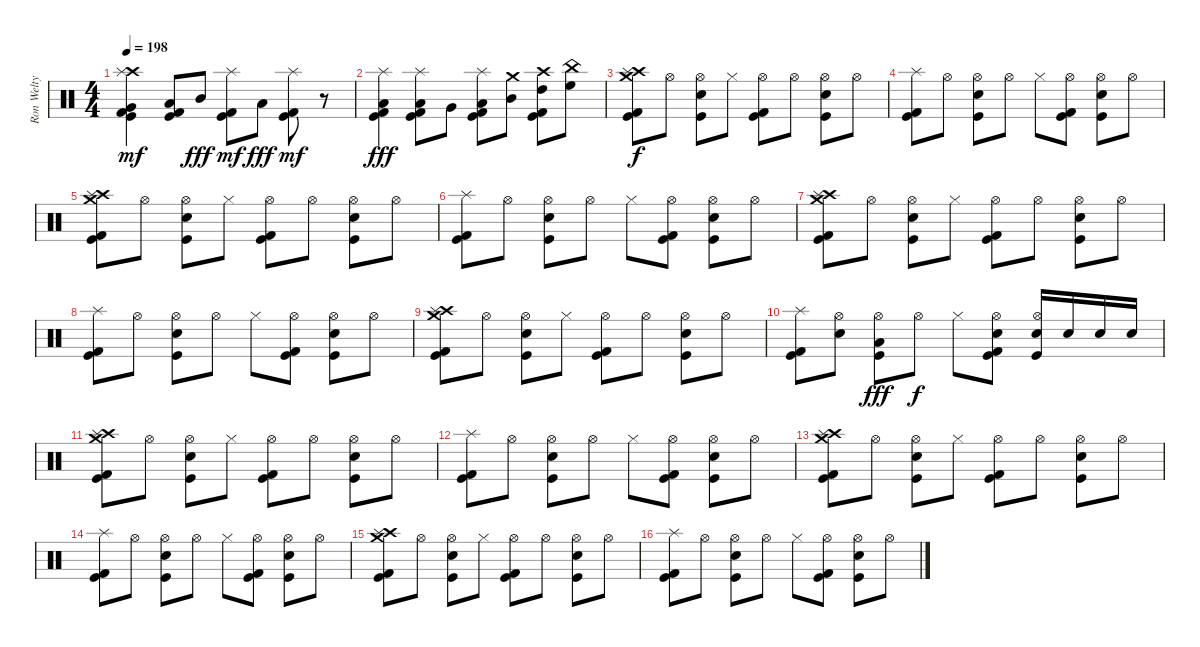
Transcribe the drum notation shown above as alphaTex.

\track ("Ron Welty" "Ron Welty") {instrument percussion}
\staff {score}
\articulation defaults
\ts (4 4)
\tempo 198
\clef neutral
\ks c
("Crash high (hit)" "Splash (hit)" "Very Low Tom (hit)" "Kick (hit) 2" "Kick (hit)").4{dy mf} ("Low Tom (hit)" "Kick (hit) 2" "Kick (hit)").8 "Mid Tom (hit)".8{dy fff} ("Splash (hit)" "Kick (hit) 2" "Kick (hit)").8{dy mf} "Low Floor Tom (hit)".8{dy fff} ("Splash (hit)" "Kick (hit) 2" "Kick (hit)").8{dy mf} r.8 |
("Splash (hit)" "Low Tom (hit)" "Kick (hit) 2" "Kick (hit)").4{dy fff} ("Splash (hit)" "Low Floor Tom (hit)" "Kick (hit) 2" "Kick (hit)").8 "Very Low Tom (hit)".8 ("Splash (hit)" "Low Tom (hit)" "Kick (hit) 2" "Kick (hit)").8 ("Crash medium (hit)" "Mid Tom (hit)").8 ("Crash high (hit)" "High Tom (hit)" "Kick (hit) 2" "Kick (hit)").8 ("China (hit)" "High Floor Tom (hit)").8 |
("Crash medium (hit)" "Crash high (hit)" "Splash (hit)" "Kick (hit) 2" "Kick (hit)").8{dy f} "Hi-Hat (open)".8 ("Hi-Hat (open)" "Electric Snare (hit)" "Kick (hit)").8 "Hi-Hat (closed)".8 ("Hi-Hat (open)" "Kick (hit) 2" "Kick (hit)").8 "Hi-Hat (open)".8 ("Hi-Hat (open)" "Electric Snare (hit)" "Kick (hit)").8 "Hi-Hat (open)".8 |
("Splash (hit)" "Kick (hit) 2" "Kick (hit)").8 "Hi-Hat (open)".8 ("Hi-Hat (open)" "Electric Snare (hit)" "Kick (hit)").8 "Hi-Hat (open)".8 "Hi-Hat (closed)".8 ("Hi-Hat (open)" "Kick (hit) 2" "Kick (hit)").8 ("Hi-Hat (open)" "Electric Snare (hit)" "Kick (hit)").8 "Hi-Hat (open)".8 |
("Crash medium (hit)" "Crash high (hit)" "Splash (hit)" "Kick (hit) 2" "Kick (hit)").8 "Hi-Hat (open)".8 ("Hi-Hat (open)" "Electric Snare (hit)" "Kick (hit)").8 "Hi-Hat (closed)".8 ("Hi-Hat (open)" "Kick (hit) 2" "Kick (hit)").8 "Hi-Hat (open)".8 ("Hi-Hat (open)" "Electric Snare (hit)" "Kick (hit)").8 "Hi-Hat (open)".8 |
("Splash (hit)" "Kick (hit) 2" "Kick (hit)").8 "Hi-Hat (open)".8 ("Hi-Hat (open)" "Electric Snare (hit)" "Kick (hit)").8 "Hi-Hat (open)".8 "Hi-Hat (closed)".8 ("Hi-Hat (open)" "Kick (hit) 2" "Kick (hit)").8 ("Hi-Hat (open)" "Electric Snare (hit)" "Kick (hit)").8 "Hi-Hat (open)".8 |
("Crash medium (hit)" "Crash high (hit)" "Splash (hit)" "Kick (hit) 2" "Kick (hit)").8 "Hi-Hat (open)".8 ("Hi-Hat (open)" "Electric Snare (hit)" "Kick (hit)").8 "Hi-Hat (closed)".8 ("Hi-Hat (open)" "Kick (hit) 2" "Kick (hit)").8 "Hi-Hat (open)".8 ("Hi-Hat (open)" "Electric Snare (hit)" "Kick (hit)").8 "Hi-Hat (open)".8 |
("Splash (hit)" "Kick (hit) 2" "Kick (hit)").8 "Hi-Hat (open)".8 ("Hi-Hat (open)" "Electric Snare (hit)" "Kick (hit)").8 "Hi-Hat (open)".8 "Hi-Hat (closed)".8 ("Hi-Hat (open)" "Kick (hit) 2" "Kick (hit)").8 ("Hi-Hat (open)" "Electric Snare (hit)" "Kick (hit)").8 "Hi-Hat (open)".8 |
("Crash medium (hit)" "Crash high (hit)" "Splash (hit)" "Kick (hit) 2" "Kick (hit)").8 "Hi-Hat (open)".8 ("Hi-Hat (open)" "Electric Snare (hit)" "Kick (hit)").8 "Hi-Hat (closed)".8 ("Hi-Hat (open)" "Kick (hit) 2" "Kick (hit)").8 "Hi-Hat (open)".8 ("Hi-Hat (open)" "Electric Snare (hit)" "Kick (hit)").8 "Hi-Hat (open)".8 |
("Splash (hit)" "Kick (hit) 2" "Kick (hit)").8 ("Hi-Hat (open)" "Electric Snare (hit)").8 ("Hi-Hat (open)" "Low Tom (hit)" "Kick (hit)").8{dy fff} "Hi-Hat (open)".8{dy f} "Hi-Hat (closed)".8 ("Hi-Hat (open)" "Electric Snare (hit)" "Kick (hit) 2" "Kick (hit)").8 ("Hi-Hat (open)" "Electric Snare (hit)" "Kick (hit)").16 "Electric Snare (hit)".16 "Electric Snare (hit)".16 "Electric Snare (hit)".16 |
("Crash medium (hit)" "Crash high (hit)" "Splash (hit)" "Kick (hit) 2" "Kick (hit)").8 "Hi-Hat (open)".8 ("Hi-Hat (open)" "Electric Snare (hit)" "Kick (hit)").8 "Hi-Hat (closed)".8 ("Hi-Hat (open)" "Kick (hit) 2" "Kick (hit)").8 "Hi-Hat (open)".8 ("Hi-Hat (open)" "Electric Snare (hit)" "Kick (hit)").8 "Hi-Hat (open)".8 |
("Splash (hit)" "Kick (hit) 2" "Kick (hit)").8 "Hi-Hat (open)".8 ("Hi-Hat (open)" "Electric Snare (hit)" "Kick (hit)").8 "Hi-Hat (open)".8 "Hi-Hat (closed)".8 ("Hi-Hat (open)" "Kick (hit) 2" "Kick (hit)").8 ("Hi-Hat (open)" "Electric Snare (hit)" "Kick (hit)").8 "Hi-Hat (open)".8 |
("Crash medium (hit)" "Crash high (hit)" "Splash (hit)" "Kick (hit) 2" "Kick (hit)").8 "Hi-Hat (open)".8 ("Hi-Hat (open)" "Electric Snare (hit)" "Kick (hit)").8 "Hi-Hat (closed)".8 ("Hi-Hat (open)" "Kick (hit) 2" "Kick (hit)").8 "Hi-Hat (open)".8 ("Hi-Hat (open)" "Electric Snare (hit)" "Kick (hit)").8 "Hi-Hat (open)".8 |
("Splash (hit)" "Kick (hit) 2" "Kick (hit)").8 "Hi-Hat (open)".8 ("Hi-Hat (open)" "Electric Snare (hit)" "Kick (hit)").8 "Hi-Hat (open)".8 "Hi-Hat (closed)".8 ("Hi-Hat (open)" "Kick (hit) 2" "Kick (hit)").8 ("Hi-Hat (open)" "Electric Snare (hit)" "Kick (hit)").8 "Hi-Hat (open)".8 |
("Crash medium (hit)" "Crash high (hit)" "Splash (hit)" "Kick (hit) 2" "Kick (hit)").8 "Hi-Hat (open)".8 ("Hi-Hat (open)" "Electric Snare (hit)" "Kick (hit)").8 "Hi-Hat (closed)".8 ("Hi-Hat (open)" "Kick (hit) 2" "Kick (hit)").8 "Hi-Hat (open)".8 ("Hi-Hat (open)" "Electric Snare (hit)" "Kick (hit)").8 "Hi-Hat (open)".8 |
("Splash (hit)" "Kick (hit) 2" "Kick (hit)").8 "Hi-Hat (open)".8 ("Hi-Hat (open)" "Electric Snare (hit)" "Kick (hit)").8 "Hi-Hat (open)".8 "Hi-Hat (closed)".8 ("Hi-Hat (open)" "Kick (hit) 2" "Kick (hit)").8 ("Hi-Hat (open)" "Electric Snare (hit)" "Kick (hit)").8 "Hi-Hat (open)".8
